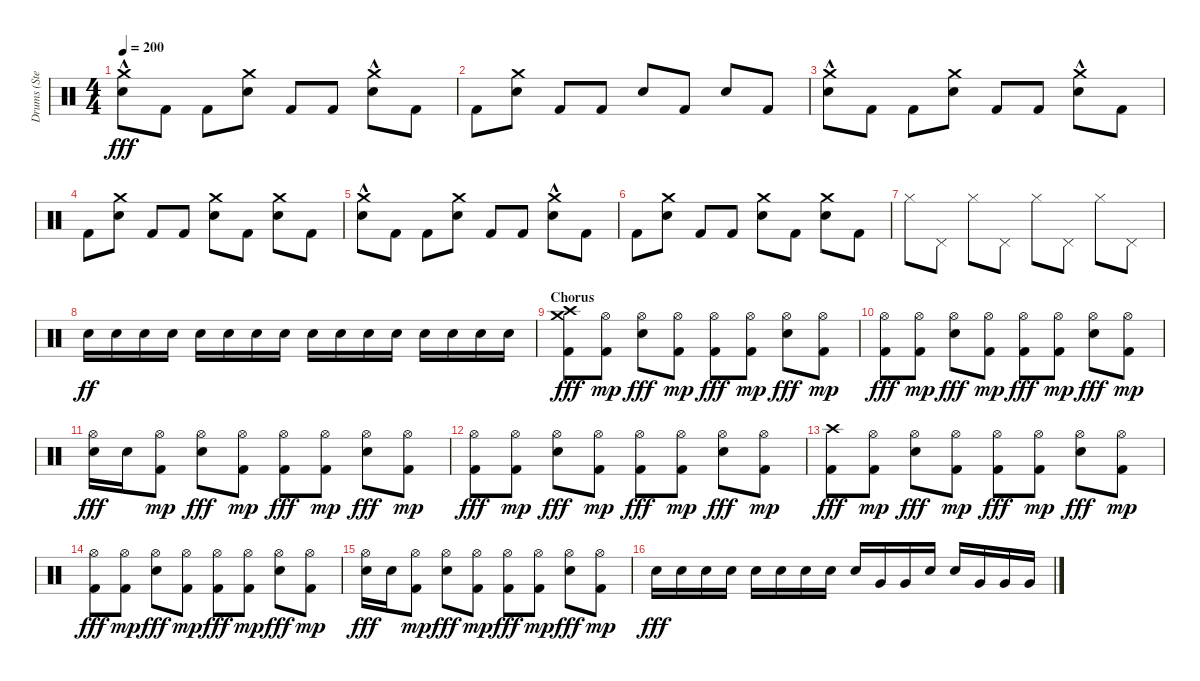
\track ("Drums (Stevo32)" "Drums (Ste") {instrument percussion}
\staff {score}
\articulation defaults
\ts (4 4)
\tempo 200
\clef neutral
\ks c
("Electric Snare (hit)" "Crash medium (hit)"{hac}).8{dy fff} "Kick (hit) 2".8 "Kick (hit) 2".8 ("Electric Snare (hit)" "Crash medium (hit)").8 "Kick (hit) 2".8 "Kick (hit) 2".8 ("Electric Snare (hit)" "Crash medium (hit)"{hac}).8 "Kick (hit) 2".8 |
"Kick (hit) 2".8 ("Electric Snare (hit)" "Crash medium (hit)").8 "Kick (hit) 2".8 "Kick (hit) 2".8 "Electric Snare (hit)".8 "Kick (hit) 2".8 "Electric Snare (hit)".8 "Kick (hit) 2".8 |
("Electric Snare (hit)" "Crash medium (hit)"{hac}).8 "Kick (hit) 2".8 "Kick (hit) 2".8 ("Electric Snare (hit)" "Crash medium (hit)").8 "Kick (hit) 2".8 "Kick (hit) 2".8 ("Electric Snare (hit)" "Crash medium (hit)"{hac}).8 "Kick (hit) 2".8 |
"Kick (hit) 2".8 ("Electric Snare (hit)" "Crash medium (hit)").8 "Kick (hit) 2".8 "Kick (hit) 2".8 ("Electric Snare (hit)" "Crash medium (hit)").8 "Kick (hit) 2".8 ("Electric Snare (hit)" "Crash medium (hit)").8 "Kick (hit) 2".8 |
("Electric Snare (hit)" "Crash medium (hit)"{hac}).8 "Kick (hit) 2".8 "Kick (hit) 2".8 ("Electric Snare (hit)" "Crash medium (hit)").8 "Kick (hit) 2".8 "Kick (hit) 2".8 ("Electric Snare (hit)" "Crash medium (hit)"{hac}).8 "Kick (hit) 2".8 |
"Kick (hit) 2".8 ("Electric Snare (hit)" "Crash medium (hit)").8 "Kick (hit) 2".8 "Kick (hit) 2".8 ("Electric Snare (hit)" "Crash medium (hit)").8 "Kick (hit) 2".8 ("Electric Snare (hit)" "Crash medium (hit)").8 "Kick (hit) 2".8 |
"Hi-Hat (closed)".8 "Pedal Hi-Hat (hit)".8 "Hi-Hat (closed)".8 "Pedal Hi-Hat (hit)".8 "Hi-Hat (closed)".8 "Pedal Hi-Hat (hit)".8 "Hi-Hat (closed)".8 "Pedal Hi-Hat (hit)".8 |
"Electric Snare (hit)".16{dy ff} "Electric Snare (hit)".16 "Electric Snare (hit)".16 "Electric Snare (hit)".16 "Electric Snare (hit)".16 "Electric Snare (hit)".16 "Electric Snare (hit)".16 "Electric Snare (hit)".16 "Electric Snare (hit)".16 "Electric Snare (hit)".16 "Electric Snare (hit)".16 "Electric Snare (hit)".16 "Electric Snare (hit)".16 "Electric Snare (hit)".16 "Electric Snare (hit)".16 "Electric Snare (hit)".16 |
\section ("" "Chorus")
("Kick (hit) 2" "Crash high (hit)" "Crash medium (hit)").8{dy fff} ("Kick (hit) 2" "Hi-Hat (open)").8{dy mp} ("Electric Snare (hit)" "Hi-Hat (open)").8{dy fff} ("Kick (hit) 2" "Hi-Hat (open)").8{dy mp} ("Kick (hit) 2" "Hi-Hat (open)").8{dy fff} ("Kick (hit) 2" "Hi-Hat (open)").8{dy mp} ("Electric Snare (hit)" "Hi-Hat (open)").8{dy fff} ("Kick (hit) 2" "Hi-Hat (open)").8{dy mp} |
("Kick (hit) 2" "Hi-Hat (open)").8{dy fff} ("Kick (hit) 2" "Hi-Hat (open)").8{dy mp} ("Electric Snare (hit)" "Hi-Hat (open)").8{dy fff} ("Kick (hit) 2" "Hi-Hat (open)").8{dy mp} ("Kick (hit) 2" "Hi-Hat (open)").8{dy fff} ("Kick (hit) 2" "Hi-Hat (open)").8{dy mp} ("Electric Snare (hit)" "Hi-Hat (open)").8{dy fff} ("Kick (hit) 2" "Hi-Hat (open)").8{dy mp} |
("Electric Snare (hit)" "Hi-Hat (open)").16{dy fff} "Electric Snare (hit)".16 ("Kick (hit) 2" "Hi-Hat (open)").8{dy mp} ("Electric Snare (hit)" "Hi-Hat (open)").8{dy fff} ("Kick (hit) 2" "Hi-Hat (open)").8{dy mp} ("Kick (hit) 2" "Hi-Hat (open)").8{dy fff} ("Kick (hit) 2" "Hi-Hat (open)").8{dy mp} ("Electric Snare (hit)" "Hi-Hat (open)").8{dy fff} ("Kick (hit) 2" "Hi-Hat (open)").8{dy mp} |
("Kick (hit) 2" "Hi-Hat (open)").8{dy fff} ("Kick (hit) 2" "Hi-Hat (open)").8{dy mp} ("Electric Snare (hit)" "Hi-Hat (open)").8{dy fff} ("Kick (hit) 2" "Hi-Hat (open)").8{dy mp} ("Kick (hit) 2" "Hi-Hat (open)").8{dy fff} ("Kick (hit) 2" "Hi-Hat (open)").8{dy mp} ("Electric Snare (hit)" "Hi-Hat (open)").8{dy fff} ("Kick (hit) 2" "Hi-Hat (open)").8{dy mp} |
("Kick (hit) 2" "Crash high (hit)").8{dy fff} ("Kick (hit) 2" "Hi-Hat (open)").8{dy mp} ("Electric Snare (hit)" "Hi-Hat (open)").8{dy fff} ("Kick (hit) 2" "Hi-Hat (open)").8{dy mp} ("Kick (hit) 2" "Hi-Hat (open)").8{dy fff} ("Kick (hit) 2" "Hi-Hat (open)").8{dy mp} ("Electric Snare (hit)" "Hi-Hat (open)").8{dy fff} ("Kick (hit) 2" "Hi-Hat (open)").8{dy mp} |
("Kick (hit) 2" "Hi-Hat (open)").8{dy fff} ("Kick (hit) 2" "Hi-Hat (open)").8{dy mp} ("Electric Snare (hit)" "Hi-Hat (open)").8{dy fff} ("Kick (hit) 2" "Hi-Hat (open)").8{dy mp} ("Kick (hit) 2" "Hi-Hat (open)").8{dy fff} ("Kick (hit) 2" "Hi-Hat (open)").8{dy mp} ("Electric Snare (hit)" "Hi-Hat (open)").8{dy fff} ("Kick (hit) 2" "Hi-Hat (open)").8{dy mp} |
("Electric Snare (hit)" "Hi-Hat (open)").16{dy fff} "Electric Snare (hit)".16 ("Kick (hit) 2" "Hi-Hat (open)").8{dy mp} ("Electric Snare (hit)" "Hi-Hat (open)").8{dy fff} ("Kick (hit) 2" "Hi-Hat (open)").8{dy mp} ("Kick (hit) 2" "Hi-Hat (open)").8{dy fff} ("Kick (hit) 2" "Hi-Hat (open)").8{dy mp} ("Electric Snare (hit)" "Hi-Hat (open)").8{dy fff} ("Kick (hit) 2" "Hi-Hat (open)").8{dy mp} |
"Electric Snare (hit)".16{dy fff} "Electric Snare (hit)".16 "Electric Snare (hit)".16 "Electric Snare (hit)".16 "Electric Snare (hit)".16 "Electric Snare (hit)".16 "Electric Snare (hit)".16 "Electric Snare (hit)".16 "Electric Snare (hit)".16 "Very Low Tom (hit)".16 "Very Low Tom (hit)".16 "Electric Snare (hit)".16 "Electric Snare (hit)".16 "Very Low Tom (hit)".16 "Very Low Tom (hit)".16 "Very Low Tom (hit)".16
